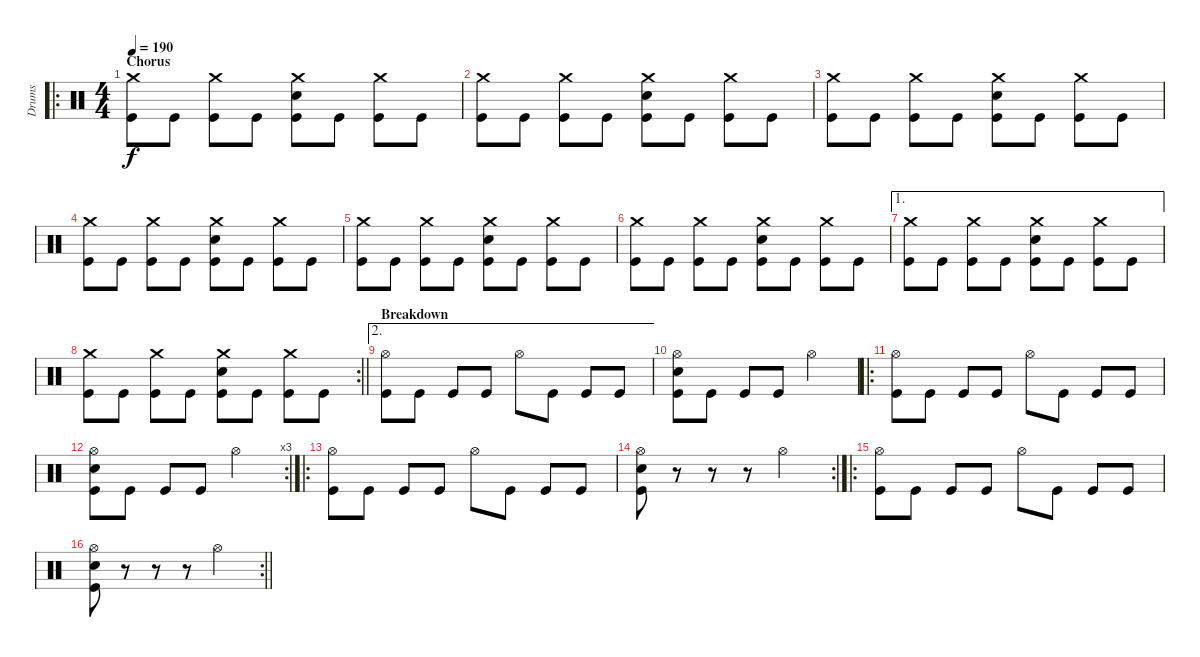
\track ("Drums" "Drums") {instrument percussion}
\staff {score}
\articulation defaults
\ro
\ts (4 4)
\section ("" "Chorus")
\tempo 190
\clef neutral
\ks c
("Crash medium (hit)" "Kick (hit)").8{dy f} "Kick (hit)".8 ("Crash medium (hit)" "Kick (hit)").8 "Kick (hit)".8 ("Crash medium (hit)" "Snare (hit) 2" "Kick (hit)").8 "Kick (hit)".8 ("Crash medium (hit)" "Kick (hit)").8 "Kick (hit)".8 |
("Crash medium (hit)" "Kick (hit)").8 "Kick (hit)".8 ("Crash medium (hit)" "Kick (hit)").8 "Kick (hit)".8 ("Crash medium (hit)" "Snare (hit) 2" "Kick (hit)").8 "Kick (hit)".8 ("Crash medium (hit)" "Kick (hit)").8 "Kick (hit)".8 |
("Crash medium (hit)" "Kick (hit)").8 "Kick (hit)".8 ("Crash medium (hit)" "Kick (hit)").8 "Kick (hit)".8 ("Crash medium (hit)" "Snare (hit) 2" "Kick (hit)").8 "Kick (hit)".8 ("Crash medium (hit)" "Kick (hit)").8 "Kick (hit)".8 |
("Crash medium (hit)" "Kick (hit)").8 "Kick (hit)".8 ("Crash medium (hit)" "Kick (hit)").8 "Kick (hit)".8 ("Crash medium (hit)" "Snare (hit) 2" "Kick (hit)").8 "Kick (hit)".8 ("Crash medium (hit)" "Kick (hit)").8 "Kick (hit)".8 |
("Crash medium (hit)" "Kick (hit)").8 "Kick (hit)".8 ("Crash medium (hit)" "Kick (hit)").8 "Kick (hit)".8 ("Crash medium (hit)" "Snare (hit) 2" "Kick (hit)").8 "Kick (hit)".8 ("Crash medium (hit)" "Kick (hit)").8 "Kick (hit)".8 |
("Crash medium (hit)" "Kick (hit)").8 "Kick (hit)".8 ("Crash medium (hit)" "Kick (hit)").8 "Kick (hit)".8 ("Crash medium (hit)" "Snare (hit) 2" "Kick (hit)").8 "Kick (hit)".8 ("Crash medium (hit)" "Kick (hit)").8 "Kick (hit)".8 |
\ae 1
("Crash medium (hit)" "Kick (hit)").8 "Kick (hit)".8 ("Crash medium (hit)" "Kick (hit)").8 "Kick (hit)".8 ("Crash medium (hit)" "Snare (hit) 2" "Kick (hit)").8 "Kick (hit)".8 ("Crash medium (hit)" "Kick (hit)").8 "Kick (hit)".8 |
\rc 2
\barLineRight lightlight
("Crash medium (hit)" "Kick (hit)").8 "Kick (hit)".8 ("Crash medium (hit)" "Kick (hit)").8 "Kick (hit)".8 ("Crash medium (hit)" "Snare (hit) 2" "Kick (hit)").8 "Kick (hit)".8 ("Crash medium (hit)" "Kick (hit)").8 "Kick (hit)".8 |
\ae 2
\section ("" "Breakdown")
("Hi-Hat (open)" "Kick (hit)").8 "Kick (hit)".8 "Kick (hit)".8 "Kick (hit)".8 "Hi-Hat (open)".8 "Kick (hit)".8 "Kick (hit)".8 "Kick (hit)".8 |
("Hi-Hat (open)" "Snare (hit) 2" "Kick (hit)").8 "Kick (hit)".8 "Kick (hit)".8 "Kick (hit)".8 "Hi-Hat (open)".2 |
\ro
("Hi-Hat (open)" "Kick (hit)").8 "Kick (hit)".8 "Kick (hit)".8 "Kick (hit)".8 "Hi-Hat (open)".8 "Kick (hit)".8 "Kick (hit)".8 "Kick (hit)".8 |
\rc 3
("Hi-Hat (open)" "Snare (hit) 2" "Kick (hit)").8 "Kick (hit)".8 "Kick (hit)".8 "Kick (hit)".8 "Hi-Hat (open)".2 |
\ro
("Hi-Hat (open)" "Kick (hit)").8 "Kick (hit)".8 "Kick (hit)".8 "Kick (hit)".8 "Hi-Hat (open)".8 "Kick (hit)".8 "Kick (hit)".8 "Kick (hit)".8 |
\rc 2
("Hi-Hat (open)" "Snare (hit) 2" "Kick (hit)").8 r.8 r.8 r.8 "Hi-Hat (open)".2 |
\ro
("Hi-Hat (open)" "Kick (hit)").8 "Kick (hit)".8 "Kick (hit)".8 "Kick (hit)".8 "Hi-Hat (open)".8 "Kick (hit)".8 "Kick (hit)".8 "Kick (hit)".8 |
\rc 2
\barLineRight lightlight
("Hi-Hat (open)" "Snare (hit) 2" "Kick (hit)").8 r.8 r.8 r.8 "Hi-Hat (open)".2
